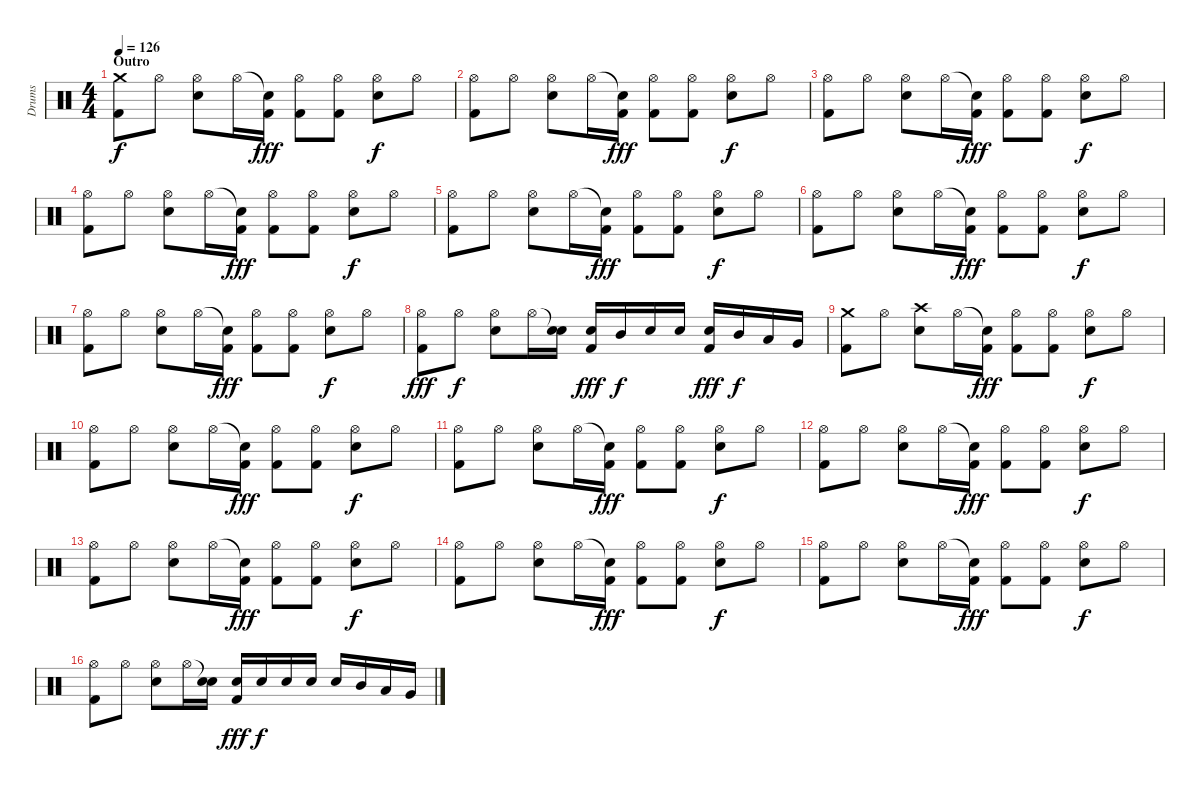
\track ("Drums" "Drums") {instrument percussion}
\staff {score}
\articulation defaults
\ts (4 4)
\section ("" "Outro")
\tempo 126
\clef neutral
\ks c
("Crash medium (hit)" "Kick (hit) 2").8{dy f} "Hi-Hat (open)".8 ("Hi-Hat (open)" "Snare (hit) 2").8 "Hi-Hat (open)".16 ("Snare (hit)"{t} "Kick (hit) 2").16{dy fff} ("Hi-Hat (open)" "Kick (hit) 2").8 ("Hi-Hat (open)" "Kick (hit) 2").8 ("Hi-Hat (open)" "Snare (hit) 2").8{dy f} "Hi-Hat (open)".8 |
("Hi-Hat (open)" "Kick (hit) 2").8 "Hi-Hat (open)".8 ("Hi-Hat (open)" "Snare (hit) 2").8 "Hi-Hat (open)".16 ("Snare (hit)"{t} "Kick (hit) 2").16{dy fff} ("Hi-Hat (open)" "Kick (hit) 2").8 ("Hi-Hat (open)" "Kick (hit) 2").8 ("Hi-Hat (open)" "Snare (hit) 2").8{dy f} "Hi-Hat (open)".8 |
("Hi-Hat (open)" "Kick (hit) 2").8 "Hi-Hat (open)".8 ("Hi-Hat (open)" "Snare (hit) 2").8 "Hi-Hat (open)".16 ("Snare (hit)"{t} "Kick (hit) 2").16{dy fff} ("Hi-Hat (open)" "Kick (hit) 2").8 ("Hi-Hat (open)" "Kick (hit) 2").8 ("Hi-Hat (open)" "Snare (hit) 2").8{dy f} "Hi-Hat (open)".8 |
("Hi-Hat (open)" "Kick (hit) 2").8 "Hi-Hat (open)".8 ("Hi-Hat (open)" "Snare (hit) 2").8 "Hi-Hat (open)".16 ("Snare (hit)"{t} "Kick (hit) 2").16{dy fff} ("Hi-Hat (open)" "Kick (hit) 2").8 ("Hi-Hat (open)" "Kick (hit) 2").8 ("Hi-Hat (open)" "Snare (hit) 2").8{dy f} "Hi-Hat (open)".8 |
("Hi-Hat (open)" "Kick (hit) 2").8 "Hi-Hat (open)".8 ("Hi-Hat (open)" "Snare (hit) 2").8 "Hi-Hat (open)".16 ("Snare (hit)"{t} "Kick (hit) 2").16{dy fff} ("Hi-Hat (open)" "Kick (hit) 2").8 ("Hi-Hat (open)" "Kick (hit) 2").8 ("Hi-Hat (open)" "Snare (hit) 2").8{dy f} "Hi-Hat (open)".8 |
("Hi-Hat (open)" "Kick (hit) 2").8 "Hi-Hat (open)".8 ("Hi-Hat (open)" "Snare (hit) 2").8 "Hi-Hat (open)".16 ("Snare (hit)"{t} "Kick (hit) 2").16{dy fff} ("Hi-Hat (open)" "Kick (hit) 2").8 ("Hi-Hat (open)" "Kick (hit) 2").8 ("Hi-Hat (open)" "Snare (hit) 2").8{dy f} "Hi-Hat (open)".8 |
("Hi-Hat (open)" "Kick (hit) 2").8 "Hi-Hat (open)".8 ("Hi-Hat (open)" "Snare (hit) 2").8 "Hi-Hat (open)".16 ("Snare (hit)"{t} "Kick (hit) 2").16{dy fff} ("Hi-Hat (open)" "Kick (hit) 2").8 ("Hi-Hat (open)" "Kick (hit) 2").8 ("Hi-Hat (open)" "Snare (hit) 2").8{dy f} "Hi-Hat (open)".8 |
("Hi-Hat (open)" "Kick (hit) 2").8{dy fff} "Hi-Hat (open)".8{dy f} ("Hi-Hat (open)" "Snare (hit) 2").8 "Hi-Hat (open)".16 ("Snare (hit)"{t} "Snare (hit) 2").16 ("Snare (hit) 2" "Kick (hit) 2").16{dy fff} "Mid Tom (hit)".16{dy f} "Snare (hit) 2".16 "Snare (hit) 2".16 ("Snare (hit) 2" "Kick (hit) 2").16{dy fff} "Mid Tom (hit)".16{dy f} "Low Tom (hit)".16 "Very Low Tom (hit)".16 |
("Crash medium (hit)" "Kick (hit) 2").8 "Hi-Hat (open)".8 ("Crash high (hit)" "Snare (hit) 2").8 "Hi-Hat (open)".16 ("Snare (hit)"{t} "Kick (hit) 2").16{dy fff} ("Hi-Hat (open)" "Kick (hit) 2").8 ("Hi-Hat (open)" "Kick (hit) 2").8 ("Hi-Hat (open)" "Snare (hit) 2").8{dy f} "Hi-Hat (open)".8 |
("Hi-Hat (open)" "Kick (hit) 2").8 "Hi-Hat (open)".8 ("Hi-Hat (open)" "Snare (hit) 2").8 "Hi-Hat (open)".16 ("Snare (hit)"{t} "Kick (hit) 2").16{dy fff} ("Hi-Hat (open)" "Kick (hit) 2").8 ("Hi-Hat (open)" "Kick (hit) 2").8 ("Hi-Hat (open)" "Snare (hit) 2").8{dy f} "Hi-Hat (open)".8 |
("Hi-Hat (open)" "Kick (hit) 2").8 "Hi-Hat (open)".8 ("Hi-Hat (open)" "Snare (hit) 2").8 "Hi-Hat (open)".16 ("Snare (hit)"{t} "Kick (hit) 2").16{dy fff} ("Hi-Hat (open)" "Kick (hit) 2").8 ("Hi-Hat (open)" "Kick (hit) 2").8 ("Hi-Hat (open)" "Snare (hit) 2").8{dy f} "Hi-Hat (open)".8 |
("Hi-Hat (open)" "Kick (hit) 2").8 "Hi-Hat (open)".8 ("Hi-Hat (open)" "Snare (hit) 2").8 "Hi-Hat (open)".16 ("Snare (hit)"{t} "Kick (hit) 2").16{dy fff} ("Hi-Hat (open)" "Kick (hit) 2").8 ("Hi-Hat (open)" "Kick (hit) 2").8 ("Hi-Hat (open)" "Snare (hit) 2").8{dy f} "Hi-Hat (open)".8 |
("Hi-Hat (open)" "Kick (hit) 2").8 "Hi-Hat (open)".8 ("Hi-Hat (open)" "Snare (hit) 2").8 "Hi-Hat (open)".16 ("Snare (hit)"{t} "Kick (hit) 2").16{dy fff} ("Hi-Hat (open)" "Kick (hit) 2").8 ("Hi-Hat (open)" "Kick (hit) 2").8 ("Hi-Hat (open)" "Snare (hit) 2").8{dy f} "Hi-Hat (open)".8 |
("Hi-Hat (open)" "Kick (hit) 2").8 "Hi-Hat (open)".8 ("Hi-Hat (open)" "Snare (hit) 2").8 "Hi-Hat (open)".16 ("Snare (hit)"{t} "Kick (hit) 2").16{dy fff} ("Hi-Hat (open)" "Kick (hit) 2").8 ("Hi-Hat (open)" "Kick (hit) 2").8 ("Hi-Hat (open)" "Snare (hit) 2").8{dy f} "Hi-Hat (open)".8 |
("Hi-Hat (open)" "Kick (hit) 2").8{volume 0} "Hi-Hat (open)".8 ("Hi-Hat (open)" "Snare (hit) 2").8 "Hi-Hat (open)".16 ("Snare (hit)"{t} "Kick (hit) 2").16{dy fff} ("Hi-Hat (open)" "Kick (hit) 2").8 ("Hi-Hat (open)" "Kick (hit) 2").8 ("Hi-Hat (open)" "Snare (hit) 2").8{dy f} "Hi-Hat (open)".8 |
("Hi-Hat (open)" "Kick (hit) 2").8 "Hi-Hat (open)".8 ("Hi-Hat (open)" "Snare (hit) 2").8 "Hi-Hat (open)".16 ("Snare (hit)"{t} "Snare (hit) 2").16 ("Snare (hit) 2" "Kick (hit) 2").16{dy fff} "Snare (hit) 2".16{dy f} "Snare (hit) 2".16 "Snare (hit) 2".16 "Snare (hit) 2".16 "Mid Tom (hit)".16 "Low Tom (hit)".16 "Very Low Tom (hit)".16
